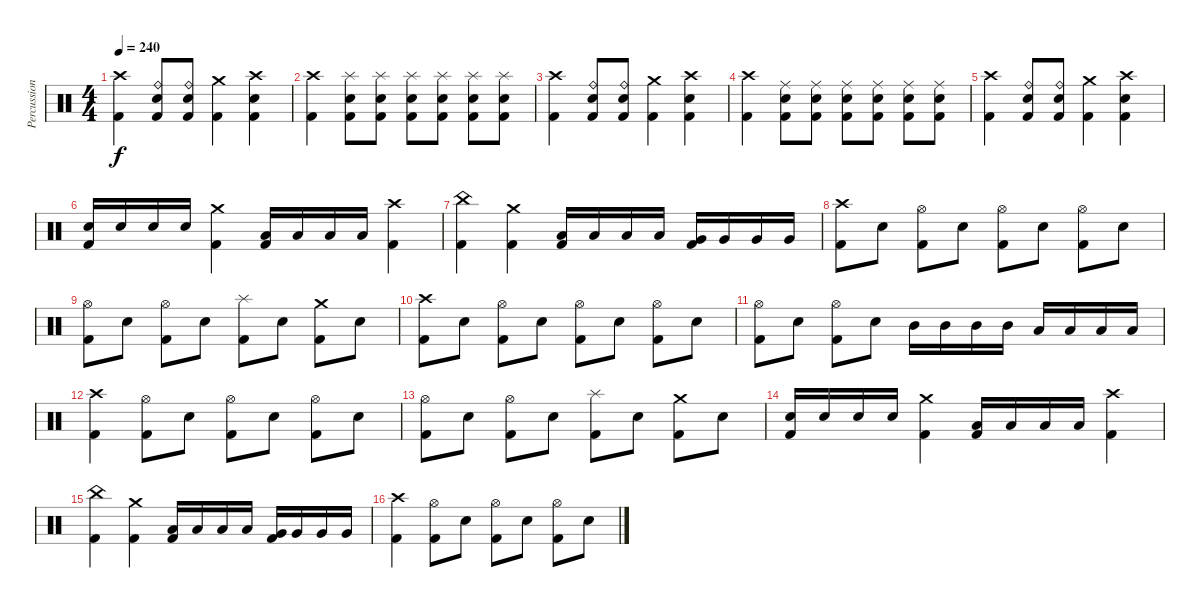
\track ("Percussion" "Percussion") {solo instrument percussion}
\staff {score}
\articulation defaults
\ts (4 4)
\tempo 240
\clef neutral
\ks c
("Crash high (hit)" "Kick (hit) 2").4{dy f} ("Ride (bell)" "Electric Snare (hit)" "Kick (hit) 2").8 ("Ride (bell)" "Electric Snare (hit)" "Kick (hit) 2").8 ("Crash medium (hit)" "Kick (hit) 2").4 ("Crash high (hit)" "Electric Snare (hit)" "Kick (hit) 2").4 |
("Crash high (hit)" "Kick (hit) 2").4 ("Splash (hit)" "Electric Snare (hit)" "Kick (hit) 2").8 ("Splash (hit)" "Electric Snare (hit)" "Kick (hit) 2").8 ("Splash (hit)" "Electric Snare (hit)" "Kick (hit) 2").8 ("Splash (hit)" "Electric Snare (hit)" "Kick (hit) 2").8 ("Splash (hit)" "Electric Snare (hit)" "Kick (hit) 2").8 ("Splash (hit)" "Electric Snare (hit)" "Kick (hit) 2").8 |
("Crash high (hit)" "Kick (hit) 2").4 ("Ride (bell)" "Electric Snare (hit)" "Kick (hit) 2").8 ("Ride (bell)" "Electric Snare (hit)" "Kick (hit) 2").8 ("Crash medium (hit)" "Kick (hit) 2").4 ("Crash high (hit)" "Electric Snare (hit)" "Kick (hit) 2").4 |
("Crash high (hit)" "Kick (hit) 2").4 ("Ride (middle)" "Electric Snare (hit)" "Kick (hit) 2").8 ("Ride (middle)" "Electric Snare (hit)" "Kick (hit) 2").8 ("Ride (middle)" "Electric Snare (hit)" "Kick (hit) 2").8 ("Ride (middle)" "Electric Snare (hit)" "Kick (hit) 2").8 ("Ride (middle)" "Electric Snare (hit)" "Kick (hit) 2").8 ("Ride (middle)" "Electric Snare (hit)" "Kick (hit) 2").8 |
("Crash high (hit)" "Kick (hit) 2").4 ("Ride (bell)" "Electric Snare (hit)" "Kick (hit) 2").8 ("Ride (bell)" "Electric Snare (hit)" "Kick (hit) 2").8 ("Crash medium (hit)" "Kick (hit) 2").4 ("Crash high (hit)" "Electric Snare (hit)" "Kick (hit) 2").4 |
("Electric Snare (hit)" "Kick (hit) 2").16 "Electric Snare (hit)".16 "Electric Snare (hit)".16 "Electric Snare (hit)".16 ("Crash medium (hit)" "Kick (hit) 2").4 ("Low Tom (hit)" "Kick (hit) 2").16 "Low Tom (hit)".16 "Low Tom (hit)".16 "Low Tom (hit)".16 ("Crash high (hit)" "Kick (hit) 2").4 |
("China (hit)" "Kick (hit) 2").4 ("Crash medium (hit)" "Kick (hit) 2").4 ("Low Tom (hit)" "Kick (hit) 2").16 "Low Tom (hit)".16 "Low Tom (hit)".16 "Low Tom (hit)".16 ("Very Low Tom (hit)" "Kick (hit) 2").16 "Very Low Tom (hit)".16 "Very Low Tom (hit)".16 "Very Low Tom (hit)".16 |
("Crash high (hit)" "Kick (hit) 2").8 "Electric Snare (hit)".8 ("Hi-Hat (open)" "Kick (hit) 2").8 "Electric Snare (hit)".8 ("Hi-Hat (open)" "Kick (hit) 2").8 "Electric Snare (hit)".8 ("Hi-Hat (open)" "Kick (hit) 2").8 "Electric Snare (hit)".8 |
("Hi-Hat (open)" "Kick (hit) 2").8 "Electric Snare (hit)".8 ("Hi-Hat (open)" "Kick (hit) 2").8 "Electric Snare (hit)".8 ("Splash (hit)" "Kick (hit) 2").8 "Electric Snare (hit)".8 ("Crash medium (hit)" "Kick (hit) 2").8 "Electric Snare (hit)".8 |
("Crash high (hit)" "Kick (hit) 2").8 "Electric Snare (hit)".8 ("Hi-Hat (open)" "Kick (hit) 2").8 "Electric Snare (hit)".8 ("Hi-Hat (open)" "Kick (hit) 2").8 "Electric Snare (hit)".8 ("Hi-Hat (open)" "Kick (hit) 2").8 "Electric Snare (hit)".8 |
("Hi-Hat (open)" "Kick (hit) 2").8 "Electric Snare (hit)".8 ("Hi-Hat (open)" "Kick (hit) 2").8 "Electric Snare (hit)".8 "Mid Tom (hit)".16 "Mid Tom (hit)".16 "Mid Tom (hit)".16 "Mid Tom (hit)".16 "Low Tom (hit)".16 "Low Tom (hit)".16 "Low Tom (hit)".16 "Low Tom (hit)".16 |
("Crash high (hit)" "Kick (hit) 2").4 ("Hi-Hat (open)" "Kick (hit) 2").8 "Electric Snare (hit)".8 ("Hi-Hat (open)" "Kick (hit) 2").8 "Electric Snare (hit)".8 ("Hi-Hat (open)" "Kick (hit) 2").8 "Electric Snare (hit)".8 |
("Hi-Hat (open)" "Kick (hit) 2").8 "Electric Snare (hit)".8 ("Hi-Hat (open)" "Kick (hit) 2").8 "Electric Snare (hit)".8 ("Splash (hit)" "Kick (hit) 2").8 "Electric Snare (hit)".8 ("Crash medium (hit)" "Kick (hit) 2").8 "Electric Snare (hit)".8 |
("Electric Snare (hit)" "Kick (hit) 2").16 "Electric Snare (hit)".16 "Electric Snare (hit)".16 "Electric Snare (hit)".16 ("Crash medium (hit)" "Kick (hit) 2").4 ("Low Tom (hit)" "Kick (hit) 2").16 "Low Tom (hit)".16 "Low Tom (hit)".16 "Low Tom (hit)".16 ("Crash high (hit)" "Kick (hit) 2").4 |
("China (hit)" "Kick (hit) 2").4 ("Crash medium (hit)" "Kick (hit) 2").4 ("Low Tom (hit)" "Kick (hit) 2").16 "Low Tom (hit)".16 "Low Tom (hit)".16 "Low Tom (hit)".16 ("Very Low Tom (hit)" "Kick (hit) 2").16 "Very Low Tom (hit)".16 "Very Low Tom (hit)".16 "Very Low Tom (hit)".16 |
("Crash high (hit)" "Kick (hit) 2").4 ("Hi-Hat (open)" "Kick (hit) 2").8 "Electric Snare (hit)".8 ("Hi-Hat (open)" "Kick (hit) 2").8 "Electric Snare (hit)".8 ("Hi-Hat (open)" "Kick (hit) 2").8 "Electric Snare (hit)".8
